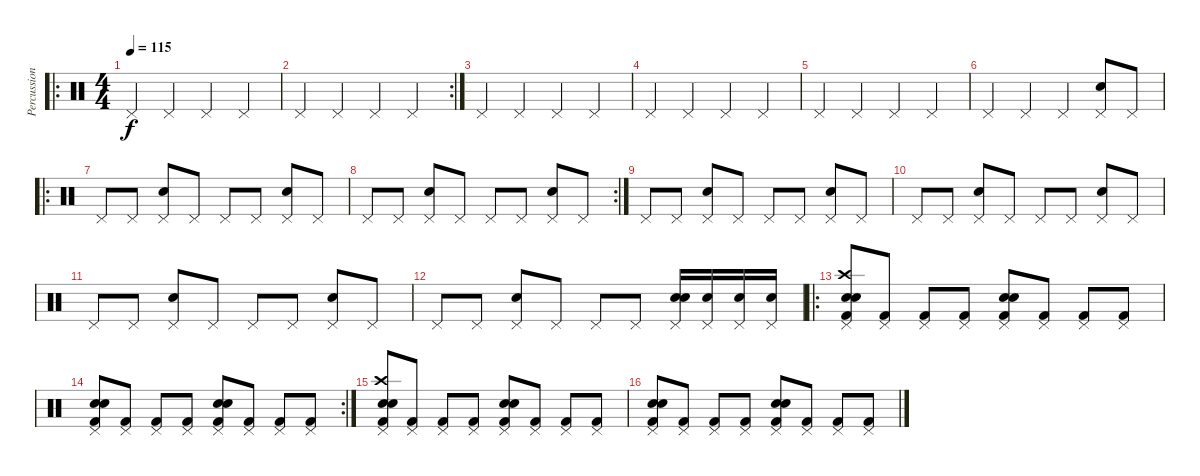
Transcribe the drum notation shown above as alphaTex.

\track ("Percussions" "Percussion") {instrument percussion}
\staff {score}
\articulation defaults
\ro
\ts (4 4)
\tempo 115
\clef neutral
\ks c "Pedal Hi-Hat (hit)".4{dy f} "Pedal Hi-Hat (hit)".4 "Pedal Hi-Hat (hit)".4 "Pedal Hi-Hat (hit)".4
|
\rc 2 "Pedal Hi-Hat (hit)".4 "Pedal Hi-Hat (hit)".4 "Pedal Hi-Hat (hit)".4 "Pedal Hi-Hat (hit)".4
|
"Pedal Hi-Hat (hit)".4 "Pedal Hi-Hat (hit)".4 "Pedal Hi-Hat (hit)".4 "Pedal Hi-Hat (hit)".4 |
"Pedal Hi-Hat (hit)".4 "Pedal Hi-Hat (hit)".4 "Pedal Hi-Hat (hit)".4 "Pedal Hi-Hat (hit)".4 |
"Pedal Hi-Hat (hit)".4 "Pedal Hi-Hat (hit)".4 "Pedal Hi-Hat (hit)".4 "Pedal Hi-Hat (hit)".4 |
"Pedal Hi-Hat (hit)".4 "Pedal Hi-Hat (hit)".4 "Pedal Hi-Hat (hit)".4 ("Hand Clap (hit)" "Pedal Hi-Hat (hit)").8 "Pedal Hi-Hat (hit)".8 |
\ro "Pedal Hi-Hat (hit)".8 "Pedal Hi-Hat (hit)".8
("Hand Clap (hit)" "Pedal Hi-Hat (hit)").8 "Pedal Hi-Hat (hit)".8 "Pedal Hi-Hat (hit)".8 "Pedal Hi-Hat (hit)".8 ("Hand Clap (hit)" "Pedal Hi-Hat (hit)").8 "Pedal Hi-Hat (hit)".8 |
\rc 2 "Pedal Hi-Hat (hit)".8 "Pedal Hi-Hat (hit)".8
("Hand Clap (hit)" "Pedal Hi-Hat (hit)").8 "Pedal Hi-Hat (hit)".8 "Pedal Hi-Hat (hit)".8 "Pedal Hi-Hat (hit)".8 ("Hand Clap (hit)" "Pedal Hi-Hat (hit)").8 "Pedal Hi-Hat (hit)".8 |
"Pedal Hi-Hat (hit)".8 "Pedal Hi-Hat (hit)".8 ("Hand Clap (hit)" "Pedal Hi-Hat (hit)").8 "Pedal Hi-Hat (hit)".8 "Pedal Hi-Hat (hit)".8 "Pedal Hi-Hat (hit)".8 ("Hand Clap (hit)" "Pedal Hi-Hat (hit)").8 "Pedal Hi-Hat (hit)".8 |
"Pedal Hi-Hat (hit)".8 "Pedal Hi-Hat (hit)".8 ("Hand Clap (hit)" "Pedal Hi-Hat (hit)").8 "Pedal Hi-Hat (hit)".8 "Pedal Hi-Hat (hit)".8 "Pedal Hi-Hat (hit)".8 ("Hand Clap (hit)" "Pedal Hi-Hat (hit)").8 "Pedal Hi-Hat (hit)".8 |
"Pedal Hi-Hat (hit)".8 "Pedal Hi-Hat (hit)".8 ("Hand Clap (hit)" "Pedal Hi-Hat (hit)").8 "Pedal Hi-Hat (hit)".8 "Pedal Hi-Hat (hit)".8 "Pedal Hi-Hat (hit)".8 ("Hand Clap (hit)" "Pedal Hi-Hat (hit)").8 "Pedal Hi-Hat (hit)".8 |
"Pedal Hi-Hat (hit)".8 "Pedal Hi-Hat (hit)".8 ("Hand Clap (hit)" "Pedal Hi-Hat (hit)").8 "Pedal Hi-Hat (hit)".8 "Pedal Hi-Hat (hit)".8 "Pedal Hi-Hat (hit)".8 ("Hand Clap (hit)" "Pedal Hi-Hat (hit)" "Snare (hit) 2").16 ("Pedal Hi-Hat (hit)" "Snare (hit) 2").16 ("Pedal Hi-Hat (hit)" "Snare (hit) 2").16 ("Pedal Hi-Hat (hit)" "Snare (hit) 2").16 |
\ro
("Crash high (hit)" "Hand Clap (hit)" "Pedal Hi-Hat (hit)" "Snare (hit) 2" "Kick (hit) 2").8 ("Pedal Hi-Hat (hit)" "Kick (hit) 2").8 ("Pedal Hi-Hat (hit)" "Kick (hit) 2").8 ("Pedal Hi-Hat (hit)" "Kick (hit) 2").8 ("Hand Clap (hit)" "Pedal Hi-Hat (hit)" "Snare (hit) 2" "Kick (hit) 2").8 ("Pedal Hi-Hat (hit)" "Kick (hit) 2").8 ("Pedal Hi-Hat (hit)" "Kick (hit) 2").8 ("Pedal Hi-Hat (hit)" "Kick (hit) 2").8 |
\rc 2
("Hand Clap (hit)" "Pedal Hi-Hat (hit)" "Snare (hit) 2" "Kick (hit) 2").8 ("Pedal Hi-Hat (hit)" "Kick (hit) 2").8 ("Pedal Hi-Hat (hit)" "Kick (hit) 2").8 ("Pedal Hi-Hat (hit)" "Kick (hit) 2").8 ("Hand Clap (hit)" "Pedal Hi-Hat (hit)" "Snare (hit) 2" "Kick (hit) 2").8 ("Pedal Hi-Hat (hit)" "Kick (hit) 2").8 ("Pedal Hi-Hat (hit)" "Kick (hit) 2").8 ("Pedal Hi-Hat (hit)" "Kick (hit) 2").8 |
("Crash high (hit)" "Hand Clap (hit)" "Pedal Hi-Hat (hit)" "Snare (hit) 2" "Kick (hit) 2").8 ("Pedal Hi-Hat (hit)" "Kick (hit) 2").8 ("Pedal Hi-Hat (hit)" "Kick (hit) 2").8 ("Pedal Hi-Hat (hit)" "Kick (hit) 2").8 ("Hand Clap (hit)" "Pedal Hi-Hat (hit)" "Snare (hit) 2" "Kick (hit) 2").8 ("Pedal Hi-Hat (hit)" "Kick (hit) 2").8 ("Pedal Hi-Hat (hit)" "Kick (hit) 2").8 ("Pedal Hi-Hat (hit)" "Kick (hit) 2").8 |
("Hand Clap (hit)" "Pedal Hi-Hat (hit)" "Snare (hit) 2" "Kick (hit) 2").8 ("Pedal Hi-Hat (hit)" "Kick (hit) 2").8 ("Pedal Hi-Hat (hit)" "Kick (hit) 2").8 ("Pedal Hi-Hat (hit)" "Kick (hit) 2").8 ("Hand Clap (hit)" "Pedal Hi-Hat (hit)" "Snare (hit) 2" "Kick (hit) 2").8 ("Pedal Hi-Hat (hit)" "Kick (hit) 2").8 ("Pedal Hi-Hat (hit)" "Kick (hit) 2").8 ("Pedal Hi-Hat (hit)" "Kick (hit) 2").8
